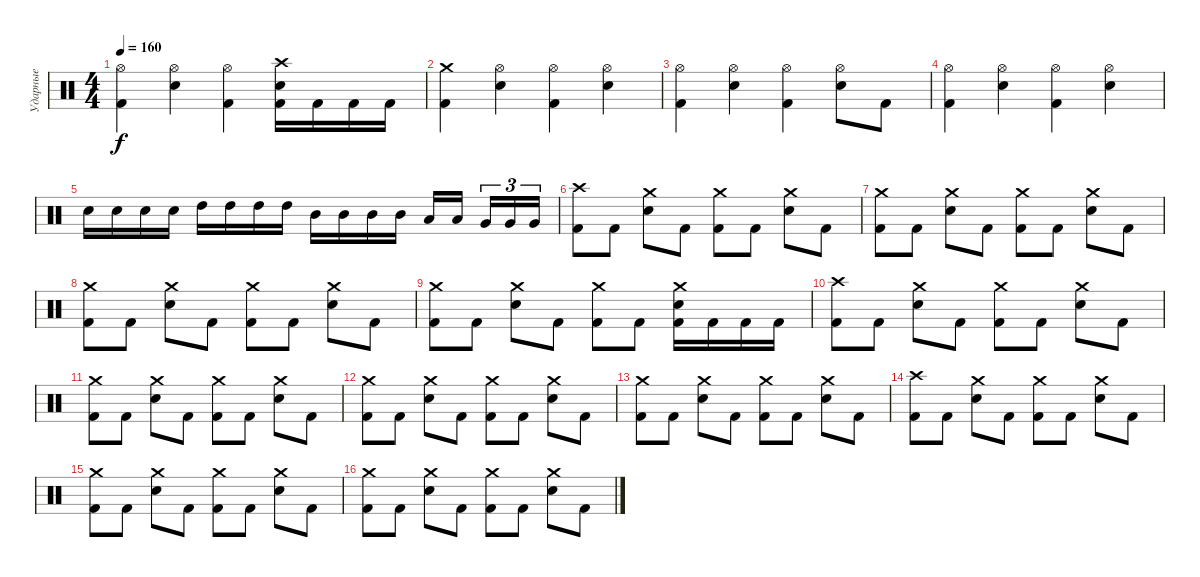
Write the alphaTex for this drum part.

\track ("Ударные" "Ударные") {instrument percussion}
\staff {score}
\articulation defaults
\ts (4 4)
\tempo 160
\clef neutral
\ks c
("Hi-Hat (open)" "Kick (hit) 2").4{dy f} ("Hi-Hat (open)" "Electric Snare (hit)").4 ("Hi-Hat (open)" "Kick (hit) 2").4 ("Crash high (hit)" "Electric Snare (hit)" "Kick (hit) 2").16 "Kick (hit) 2".16 "Kick (hit) 2".16 "Kick (hit) 2".16 |
("Crash medium (hit)" "Kick (hit) 2").4 ("Hi-Hat (open)" "Electric Snare (hit)").4 ("Hi-Hat (open)" "Kick (hit) 2").4 ("Hi-Hat (open)" "Electric Snare (hit)").4 |
("Hi-Hat (open)" "Kick (hit) 2").4 ("Hi-Hat (open)" "Electric Snare (hit)").4 ("Hi-Hat (open)" "Kick (hit) 2").4 ("Hi-Hat (open)" "Electric Snare (hit)").8 "Kick (hit) 2".8 |
("Hi-Hat (open)" "Kick (hit) 2").4 ("Hi-Hat (open)" "Electric Snare (hit)").4 ("Hi-Hat (open)" "Kick (hit) 2").4 ("Hi-Hat (open)" "Electric Snare (hit)").4 |
"Electric Snare (hit)".16 "Electric Snare (hit)".16 "Electric Snare (hit)".16 "Electric Snare (hit)".16 "High Tom (hit)".16 "High Tom (hit)".16 "High Tom (hit)".16 "High Tom (hit)".16 "Mid Tom (hit)".16 "Mid Tom (hit)".16 "Mid Tom (hit)".16 "Mid Tom (hit)".16 "Low Tom (hit)".16 "Low Tom (hit)".16{beam splitsecondary} "Very Low Tom (hit)".16{tu (3 2)} "Very Low Tom (hit)".16{tu (3 2)} "Very Low Tom (hit)".16{tu (3 2)} |
("Crash high (hit)" "Kick (hit) 2").8 "Kick (hit) 2".8 ("Crash medium (hit)" "Electric Snare (hit)").8 "Kick (hit) 2".8 ("Crash medium (hit)" "Kick (hit) 2").8 "Kick (hit) 2".8 ("Crash medium (hit)" "Electric Snare (hit)").8 "Kick (hit) 2".8 |
("Crash medium (hit)" "Kick (hit) 2").8 "Kick (hit) 2".8 ("Crash medium (hit)" "Electric Snare (hit)").8 "Kick (hit) 2".8 ("Crash medium (hit)" "Kick (hit) 2").8 "Kick (hit) 2".8 ("Crash medium (hit)" "Electric Snare (hit)").8 "Kick (hit) 2".8 |
("Crash medium (hit)" "Kick (hit) 2").8 "Kick (hit) 2".8 ("Crash medium (hit)" "Electric Snare (hit)").8 "Kick (hit) 2".8 ("Crash medium (hit)" "Kick (hit) 2").8 "Kick (hit) 2".8 ("Crash medium (hit)" "Electric Snare (hit)").8 "Kick (hit) 2".8 |
("Crash medium (hit)" "Kick (hit) 2").8 "Kick (hit) 2".8 ("Crash medium (hit)" "Electric Snare (hit)").8 "Kick (hit) 2".8 ("Crash medium (hit)" "Kick (hit) 2").8 "Kick (hit) 2".8 ("Crash medium (hit)" "Electric Snare (hit)" "Kick (hit) 2").16 "Kick (hit) 2".16 "Kick (hit) 2".16 "Kick (hit) 2".16 |
("Crash high (hit)" "Kick (hit) 2").8 "Kick (hit) 2".8 ("Crash medium (hit)" "Electric Snare (hit)").8 "Kick (hit) 2".8 ("Crash medium (hit)" "Kick (hit) 2").8 "Kick (hit) 2".8 ("Crash medium (hit)" "Electric Snare (hit)").8 "Kick (hit) 2".8 |
("Crash medium (hit)" "Kick (hit) 2").8 "Kick (hit) 2".8 ("Crash medium (hit)" "Electric Snare (hit)").8 "Kick (hit) 2".8 ("Crash medium (hit)" "Kick (hit) 2").8 "Kick (hit) 2".8 ("Crash medium (hit)" "Electric Snare (hit)").8 "Kick (hit) 2".8 |
("Crash medium (hit)" "Kick (hit) 2").8 "Kick (hit) 2".8 ("Crash medium (hit)" "Electric Snare (hit)").8 "Kick (hit) 2".8 ("Crash medium (hit)" "Kick (hit) 2").8 "Kick (hit) 2".8 ("Crash medium (hit)" "Electric Snare (hit)").8 "Kick (hit) 2".8 |
("Crash medium (hit)" "Kick (hit) 2").8 "Kick (hit) 2".8 ("Crash medium (hit)" "Electric Snare (hit)").8 "Kick (hit) 2".8 ("Crash medium (hit)" "Kick (hit) 2").8 "Kick (hit) 2".8 ("Crash medium (hit)" "Electric Snare (hit)").8 "Kick (hit) 2".8 |
("Crash high (hit)" "Kick (hit) 2").8 "Kick (hit) 2".8 ("Crash medium (hit)" "Electric Snare (hit)").8 "Kick (hit) 2".8 ("Crash medium (hit)" "Kick (hit) 2").8 "Kick (hit) 2".8 ("Crash medium (hit)" "Electric Snare (hit)").8 "Kick (hit) 2".8 |
("Crash medium (hit)" "Kick (hit) 2").8 "Kick (hit) 2".8 ("Crash medium (hit)" "Electric Snare (hit)").8 "Kick (hit) 2".8 ("Crash medium (hit)" "Kick (hit) 2").8 "Kick (hit) 2".8 ("Crash medium (hit)" "Electric Snare (hit)").8 "Kick (hit) 2".8 |
("Crash medium (hit)" "Kick (hit) 2").8 "Kick (hit) 2".8 ("Crash medium (hit)" "Electric Snare (hit)").8 "Kick (hit) 2".8 ("Crash medium (hit)" "Kick (hit) 2").8 "Kick (hit) 2".8 ("Crash medium (hit)" "Electric Snare (hit)").8 "Kick (hit) 2".8
